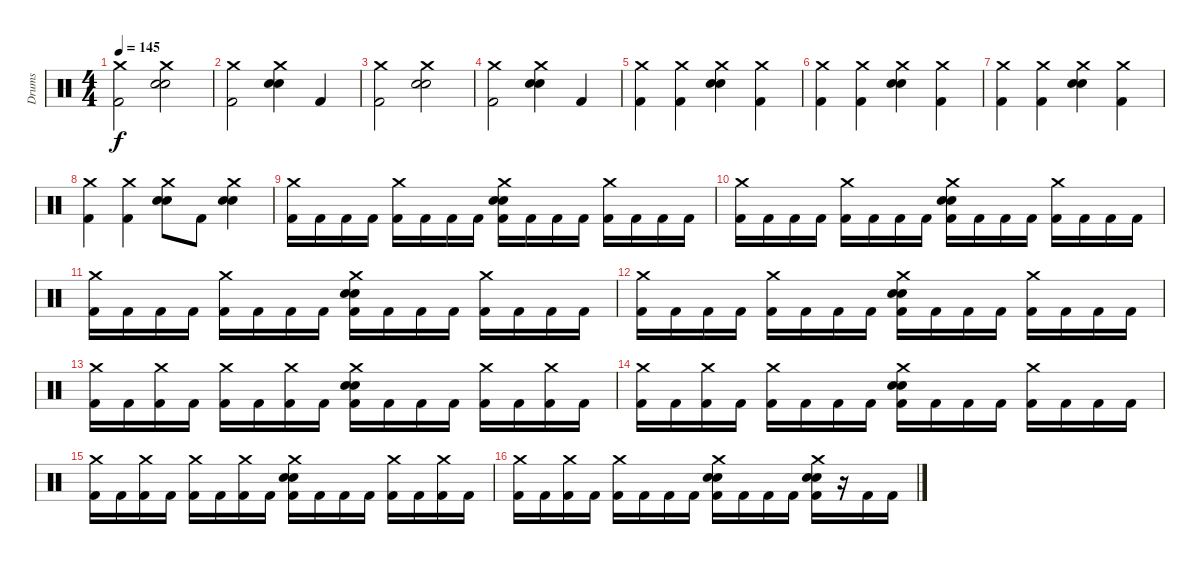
\track ("Drums" "Drums") {instrument percussion}
\staff {score}
\articulation defaults
\ts (4 4)
\tempo 145
\clef neutral
\ks c
("Crash medium (hit)" "Kick (hit) 2").2{dy f} ("Crash medium (hit)" "Electric Snare (hit)" "Snare (hit) 2").2 |
("Crash medium (hit)" "Kick (hit) 2").2 ("Crash medium (hit)" "Electric Snare (hit)" "Snare (hit) 2").4 "Kick (hit) 2".4 |
("Crash medium (hit)" "Kick (hit) 2").2 ("Crash medium (hit)" "Electric Snare (hit)" "Snare (hit) 2").2 |
("Crash medium (hit)" "Kick (hit) 2").2 ("Crash medium (hit)" "Electric Snare (hit)" "Snare (hit) 2").4 "Kick (hit) 2".4 |
("Crash medium (hit)" "Kick (hit) 2").4 ("Crash medium (hit)" "Kick (hit) 2").4 ("Crash medium (hit)" "Electric Snare (hit)" "Snare (hit) 2").4 ("Crash medium (hit)" "Kick (hit) 2").4 |
("Crash medium (hit)" "Kick (hit) 2").4 ("Crash medium (hit)" "Kick (hit) 2").4 ("Crash medium (hit)" "Electric Snare (hit)" "Snare (hit) 2").4 ("Crash medium (hit)" "Kick (hit) 2").4 |
("Crash medium (hit)" "Kick (hit) 2").4 ("Crash medium (hit)" "Kick (hit) 2").4 ("Crash medium (hit)" "Electric Snare (hit)" "Snare (hit) 2").4 ("Crash medium (hit)" "Kick (hit) 2").4 |
("Crash medium (hit)" "Kick (hit) 2").4 ("Crash medium (hit)" "Kick (hit) 2").4 ("Crash medium (hit)" "Electric Snare (hit)" "Snare (hit) 2").8 "Kick (hit) 2".8 ("Crash medium (hit)" "Electric Snare (hit)" "Snare (hit) 2").4 |
("Crash medium (hit)" "Kick (hit) 2").16 "Kick (hit) 2".16 "Kick (hit) 2".16 "Kick (hit) 2".16 ("Crash medium (hit)" "Kick (hit) 2").16 "Kick (hit) 2".16 "Kick (hit) 2".16 "Kick (hit) 2".16 ("Crash medium (hit)" "Electric Snare (hit)" "Snare (hit) 2" "Kick (hit) 2").16 "Kick (hit) 2".16 "Kick (hit) 2".16 "Kick (hit) 2".16 ("Crash medium (hit)" "Kick (hit) 2").16 "Kick (hit) 2".16 "Kick (hit) 2".16 "Kick (hit) 2".16 |
("Crash medium (hit)" "Kick (hit) 2").16 "Kick (hit) 2".16 "Kick (hit) 2".16 "Kick (hit) 2".16 ("Crash medium (hit)" "Kick (hit) 2").16 "Kick (hit) 2".16 "Kick (hit) 2".16 "Kick (hit) 2".16 ("Crash medium (hit)" "Electric Snare (hit)" "Snare (hit) 2" "Kick (hit) 2").16 "Kick (hit) 2".16 "Kick (hit) 2".16 "Kick (hit) 2".16 ("Crash medium (hit)" "Kick (hit) 2").16 "Kick (hit) 2".16 "Kick (hit) 2".16 "Kick (hit) 2".16 |
("Crash medium (hit)" "Kick (hit) 2").16 "Kick (hit) 2".16 "Kick (hit) 2".16 "Kick (hit) 2".16 ("Crash medium (hit)" "Kick (hit) 2").16 "Kick (hit) 2".16 "Kick (hit) 2".16 "Kick (hit) 2".16 ("Crash medium (hit)" "Electric Snare (hit)" "Snare (hit) 2" "Kick (hit) 2").16 "Kick (hit) 2".16 "Kick (hit) 2".16 "Kick (hit) 2".16 ("Crash medium (hit)" "Kick (hit) 2").16 "Kick (hit) 2".16 "Kick (hit) 2".16 "Kick (hit) 2".16 |
("Crash medium (hit)" "Kick (hit) 2").16 "Kick (hit) 2".16 "Kick (hit) 2".16 "Kick (hit) 2".16 ("Crash medium (hit)" "Kick (hit) 2").16 "Kick (hit) 2".16 "Kick (hit) 2".16 "Kick (hit) 2".16 ("Crash medium (hit)" "Electric Snare (hit)" "Snare (hit) 2" "Kick (hit) 2").16 "Kick (hit) 2".16 "Kick (hit) 2".16 "Kick (hit) 2".16 ("Crash medium (hit)" "Kick (hit) 2").16 "Kick (hit) 2".16 "Kick (hit) 2".16 "Kick (hit) 2".16 |
("Crash medium (hit)" "Kick (hit) 2").16 "Kick (hit) 2".16 ("Crash medium (hit)" "Kick (hit) 2").16 "Kick (hit) 2".16 ("Crash medium (hit)" "Kick (hit) 2").16 "Kick (hit) 2".16 ("Crash medium (hit)" "Kick (hit) 2").16 "Kick (hit) 2".16 ("Crash medium (hit)" "Electric Snare (hit)" "Snare (hit) 2" "Kick (hit) 2").16 "Kick (hit) 2".16 "Kick (hit) 2".16 "Kick (hit) 2".16 ("Crash medium (hit)" "Kick (hit) 2").16 "Kick (hit) 2".16 ("Crash medium (hit)" "Kick (hit) 2").16 "Kick (hit) 2".16 |
("Crash medium (hit)" "Kick (hit) 2").16 "Kick (hit) 2".16 ("Crash medium (hit)" "Kick (hit) 2").16 "Kick (hit) 2".16 ("Crash medium (hit)" "Kick (hit) 2").16 "Kick (hit) 2".16 "Kick (hit) 2".16 "Kick (hit) 2".16 ("Crash medium (hit)" "Electric Snare (hit)" "Snare (hit) 2" "Kick (hit) 2").16 "Kick (hit) 2".16 "Kick (hit) 2".16 "Kick (hit) 2".16 ("Crash medium (hit)" "Kick (hit) 2").16 "Kick (hit) 2".16 "Kick (hit) 2".16 "Kick (hit) 2".16 |
("Crash medium (hit)" "Kick (hit) 2").16 "Kick (hit) 2".16 ("Crash medium (hit)" "Kick (hit) 2").16 "Kick (hit) 2".16 ("Crash medium (hit)" "Kick (hit) 2").16 "Kick (hit) 2".16 ("Crash medium (hit)" "Kick (hit) 2").16 "Kick (hit) 2".16 ("Crash medium (hit)" "Electric Snare (hit)" "Snare (hit) 2" "Kick (hit) 2").16 "Kick (hit) 2".16 "Kick (hit) 2".16 "Kick (hit) 2".16 ("Crash medium (hit)" "Kick (hit) 2").16 "Kick (hit) 2".16 ("Crash medium (hit)" "Kick (hit) 2").16 "Kick (hit) 2".16 |
("Crash medium (hit)" "Kick (hit) 2").16 "Kick (hit) 2".16 ("Crash medium (hit)" "Kick (hit) 2").16 "Kick (hit) 2".16 ("Crash medium (hit)" "Kick (hit) 2").16 "Kick (hit) 2".16 "Kick (hit) 2".16 "Kick (hit) 2".16 ("Crash medium (hit)" "Electric Snare (hit)" "Snare (hit) 2" "Kick (hit) 2").16 "Kick (hit) 2".16 "Kick (hit) 2".16 "Kick (hit) 2".16 ("Crash medium (hit)" "Electric Snare (hit)" "Snare (hit) 2" "Kick (hit) 2").16 r.16 "Kick (hit) 2".16 "Kick (hit) 2".16
